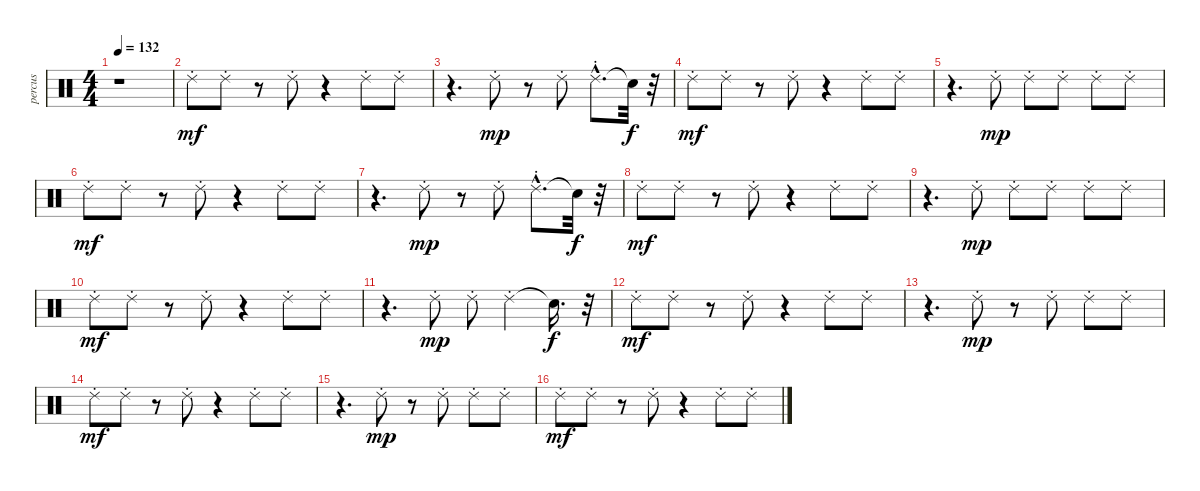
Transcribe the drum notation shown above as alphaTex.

\track ("percus" "percus") {instrument percussion}
\staff {score}
\articulation defaults
\ts (4 4)
\tempo 132
\clef neutral
\ks c
r.1{dy mf} |
"Ride (choke) 2".8 "Ride (choke) 2".8 r.8 "Ride (choke) 2".8 r.4 "Ride (choke) 2".8 "Ride (choke) 2".8 |
r.4{d} "Ride (choke) 2".8{dy mp} r.8 "Ride (choke) 2".8 "Ride (choke) 2"{hac}.8{d} "Snare (hit)"{t}.32{dy f} r.32 |
"Ride (choke) 2".8{dy mf} "Ride (choke) 2".8 r.8 "Ride (choke) 2".8 r.4 "Ride (choke) 2".8 "Ride (choke) 2".8 |
r.4{d} "Ride (choke) 2".8{dy mp} "Ride (choke) 2".8 "Ride (choke) 2".8 "Ride (choke) 2".8 "Ride (choke) 2".8 |
"Ride (choke) 2".8{dy mf} "Ride (choke) 2".8 r.8 "Ride (choke) 2".8 r.4 "Ride (choke) 2".8 "Ride (choke) 2".8 |
r.4{d} "Ride (choke) 2".8{dy mp} r.8 "Ride (choke) 2".8 "Ride (choke) 2"{hac}.8{d} "Snare (hit)"{t}.32{dy f} r.32 |
"Ride (choke) 2".8{dy mf} "Ride (choke) 2".8 r.8 "Ride (choke) 2".8 r.4 "Ride (choke) 2".8 "Ride (choke) 2".8 |
r.4{d} "Ride (choke) 2".8{dy mp} "Ride (choke) 2".8 "Ride (choke) 2".8 "Ride (choke) 2".8 "Ride (choke) 2".8 |
"Ride (choke) 2".8{dy mf} "Ride (choke) 2".8 r.8 "Ride (choke) 2".8 r.4 "Ride (choke) 2".8 "Ride (choke) 2".8 |
r.4{d} "Ride (choke) 2".8{dy mp} "Ride (choke) 2".8 "Ride (choke) 2".4 "Snare (hit)"{t}.16{d dy f} r.32 |
"Ride (choke) 2".8{dy mf} "Ride (choke) 2".8 r.8 "Ride (choke) 2".8 r.4 "Ride (choke) 2".8 "Ride (choke) 2".8 |
r.4{d} "Ride (choke) 2".8{dy mp} r.8 "Ride (choke) 2".8 "Ride (choke) 2".8 "Ride (choke) 2".8 |
"Ride (choke) 2".8{dy mf} "Ride (choke) 2".8 r.8 "Ride (choke) 2".8 r.4 "Ride (choke) 2".8 "Ride (choke) 2".8 |
r.4{d} "Ride (choke) 2".8{dy mp} r.8 "Ride (choke) 2".8 "Ride (choke) 2".8 "Ride (choke) 2".8 |
"Ride (choke) 2".8{dy mf} "Ride (choke) 2".8 r.8 "Ride (choke) 2".8 r.4 "Ride (choke) 2".8 "Ride (choke) 2".8
